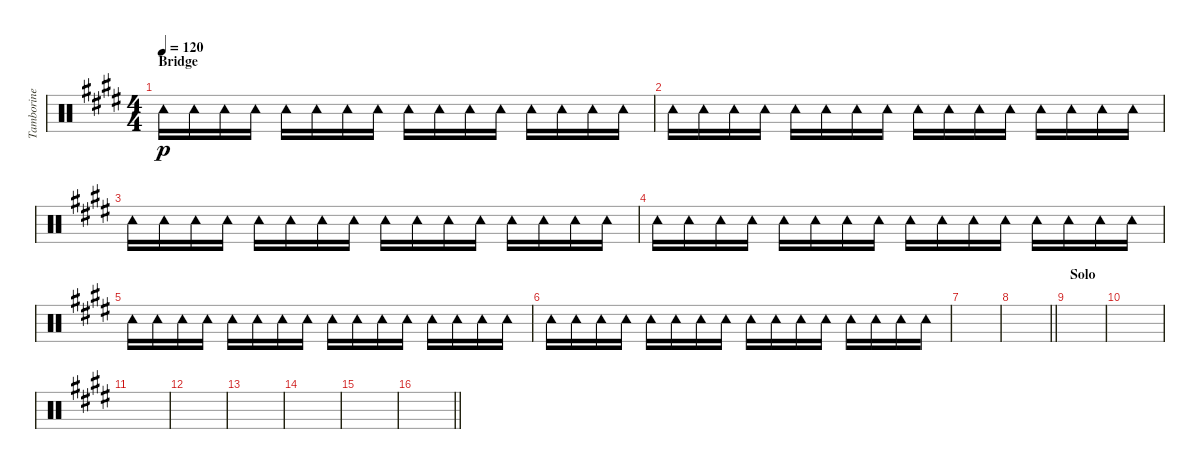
\track ("Tamborine" "Tamborine") {instrument percussion}
\staff {score}
\articulation defaults
\ts (4 4)
\section ("" "Bridge")
\tempo 120
\clef neutral
\ks e "Tambourine (hit)".16{dy p} "Tambourine (hit)".16 "Tambourine (hit)".16 "Tambourine (hit)".16 "Tambourine (hit)".16 "Tambourine (hit)".16 "Tambourine (hit)".16 "Tambourine (hit)".16 "Tambourine (hit)".16 "Tambourine (hit)".16 "Tambourine (hit)".16 "Tambourine (hit)".16 "Tambourine (hit)".16 "Tambourine (hit)".16 "Tambourine (hit)".16 "Tambourine (hit)".16
|
"Tambourine (hit)".16 "Tambourine (hit)".16 "Tambourine (hit)".16 "Tambourine (hit)".16 "Tambourine (hit)".16 "Tambourine (hit)".16 "Tambourine (hit)".16 "Tambourine (hit)".16 "Tambourine (hit)".16 "Tambourine (hit)".16 "Tambourine (hit)".16 "Tambourine (hit)".16 "Tambourine (hit)".16 "Tambourine (hit)".16 "Tambourine (hit)".16 "Tambourine (hit)".16 |
"Tambourine (hit)".16 "Tambourine (hit)".16 "Tambourine (hit)".16 "Tambourine (hit)".16 "Tambourine (hit)".16 "Tambourine (hit)".16 "Tambourine (hit)".16 "Tambourine (hit)".16 "Tambourine (hit)".16 "Tambourine (hit)".16 "Tambourine (hit)".16 "Tambourine (hit)".16 "Tambourine (hit)".16 "Tambourine (hit)".16 "Tambourine (hit)".16 "Tambourine (hit)".16 |
"Tambourine (hit)".16 "Tambourine (hit)".16 "Tambourine (hit)".16 "Tambourine (hit)".16 "Tambourine (hit)".16 "Tambourine (hit)".16 "Tambourine (hit)".16 "Tambourine (hit)".16 "Tambourine (hit)".16 "Tambourine (hit)".16 "Tambourine (hit)".16 "Tambourine (hit)".16 "Tambourine (hit)".16 "Tambourine (hit)".16 "Tambourine (hit)".16 "Tambourine (hit)".16 |
"Tambourine (hit)".16 "Tambourine (hit)".16 "Tambourine (hit)".16 "Tambourine (hit)".16 "Tambourine (hit)".16 "Tambourine (hit)".16 "Tambourine (hit)".16 "Tambourine (hit)".16 "Tambourine (hit)".16 "Tambourine (hit)".16 "Tambourine (hit)".16 "Tambourine (hit)".16 "Tambourine (hit)".16 "Tambourine (hit)".16 "Tambourine (hit)".16 "Tambourine (hit)".16 |
"Tambourine (hit)".16 "Tambourine (hit)".16 "Tambourine (hit)".16 "Tambourine (hit)".16 "Tambourine (hit)".16 "Tambourine (hit)".16 "Tambourine (hit)".16 "Tambourine (hit)".16 "Tambourine (hit)".16 "Tambourine (hit)".16 "Tambourine (hit)".16 "Tambourine (hit)".16 "Tambourine (hit)".16 "Tambourine (hit)".16 "Tambourine (hit)".16 "Tambourine (hit)".16 |
|
\barLineRight lightlight
|
\section ("" "Solo")
|
|
|
|
|
|
|
\barLineRight lightlight
